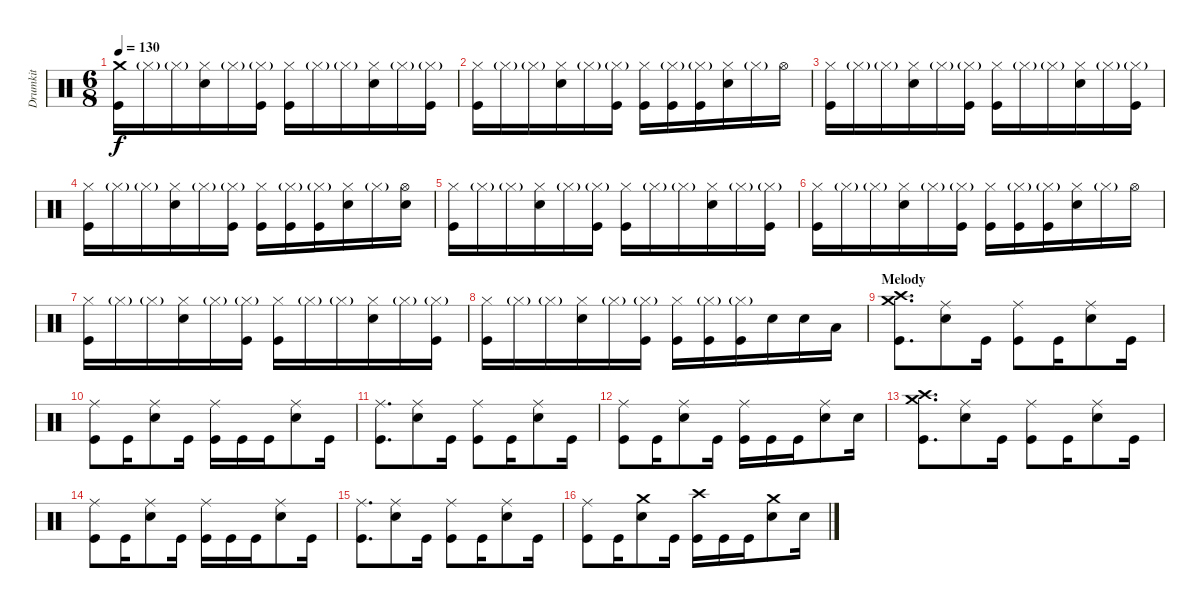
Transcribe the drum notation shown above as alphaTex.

\track ("Drumkit" "Drumkit") {instrument percussion}
\staff {score}
\articulation defaults
\ts (6 8)
\tempo 130
\clef neutral
\ks c
("Kick (hit)" "Crash medium (hit)").16{dy f} "Hi-Hat (closed)"{g}.16 "Hi-Hat (closed)"{g}.16 ("Hi-Hat (closed)" "Snare (hit) 2").16 "Hi-Hat (closed)"{g}.16 ("Hi-Hat (closed)"{g} "Kick (hit)").16 ("Hi-Hat (closed)" "Kick (hit)").16 "Hi-Hat (closed)"{g}.16 "Hi-Hat (closed)"{g}.16 ("Hi-Hat (closed)" "Snare (hit) 2").16 "Hi-Hat (closed)"{g}.16 ("Hi-Hat (closed)"{g} "Kick (hit)").16 |
("Hi-Hat (closed)" "Kick (hit)").16 "Hi-Hat (closed)"{g}.16 "Hi-Hat (closed)"{g}.16 ("Hi-Hat (closed)" "Snare (hit) 2").16 "Hi-Hat (closed)"{g}.16 ("Hi-Hat (closed)"{g} "Kick (hit)").16 ("Kick (hit)" "Hi-Hat (closed)").16 ("Kick (hit)" "Hi-Hat (closed)"{g}).16 ("Kick (hit)" "Hi-Hat (closed)"{g}).16 ("Snare (hit) 2" "Hi-Hat (closed)").16 "Hi-Hat (closed)"{g}.16 "Hi-Hat (open)".16 |
("Kick (hit)" "Hi-Hat (closed)").16 "Hi-Hat (closed)"{g}.16 "Hi-Hat (closed)"{g}.16 ("Hi-Hat (closed)" "Snare (hit) 2").16 "Hi-Hat (closed)"{g}.16 ("Hi-Hat (closed)"{g} "Kick (hit)").16 ("Hi-Hat (closed)" "Kick (hit)").16 "Hi-Hat (closed)"{g}.16 "Hi-Hat (closed)"{g}.16 ("Hi-Hat (closed)" "Snare (hit) 2").16 "Hi-Hat (closed)"{g}.16 ("Hi-Hat (closed)"{g} "Kick (hit)").16 |
("Hi-Hat (closed)" "Kick (hit)").16 "Hi-Hat (closed)"{g}.16 "Hi-Hat (closed)"{g}.16 ("Hi-Hat (closed)" "Snare (hit) 2").16 "Hi-Hat (closed)"{g}.16 ("Hi-Hat (closed)"{g} "Kick (hit)").16 ("Kick (hit)" "Hi-Hat (closed)").16 ("Kick (hit)" "Hi-Hat (closed)"{g}).16 ("Kick (hit)" "Hi-Hat (closed)"{g}).16 ("Snare (hit) 2" "Hi-Hat (closed)").16 "Hi-Hat (closed)"{g}.16 ("Hi-Hat (open)" "Snare (hit) 2").16 |
("Kick (hit)" "Hi-Hat (closed)").16 "Hi-Hat (closed)"{g}.16 "Hi-Hat (closed)"{g}.16 ("Hi-Hat (closed)" "Snare (hit) 2").16 "Hi-Hat (closed)"{g}.16 ("Hi-Hat (closed)"{g} "Kick (hit)").16 ("Hi-Hat (closed)" "Kick (hit)").16 "Hi-Hat (closed)"{g}.16 "Hi-Hat (closed)"{g}.16 ("Hi-Hat (closed)" "Snare (hit) 2").16 "Hi-Hat (closed)"{g}.16 ("Hi-Hat (closed)"{g} "Kick (hit)").16 |
("Hi-Hat (closed)" "Kick (hit)").16 "Hi-Hat (closed)"{g}.16 "Hi-Hat (closed)"{g}.16 ("Hi-Hat (closed)" "Snare (hit) 2").16 "Hi-Hat (closed)"{g}.16 ("Hi-Hat (closed)"{g} "Kick (hit)").16 ("Kick (hit)" "Hi-Hat (closed)").16 ("Kick (hit)" "Hi-Hat (closed)"{g}).16 ("Kick (hit)" "Hi-Hat (closed)"{g}).16 ("Snare (hit) 2" "Hi-Hat (closed)").16 "Hi-Hat (closed)"{g}.16 "Hi-Hat (open)".16 |
("Kick (hit)" "Hi-Hat (closed)").16 "Hi-Hat (closed)"{g}.16 "Hi-Hat (closed)"{g}.16 ("Hi-Hat (closed)" "Snare (hit) 2").16 "Hi-Hat (closed)"{g}.16 ("Hi-Hat (closed)"{g} "Kick (hit)").16 ("Hi-Hat (closed)" "Kick (hit)").16 "Hi-Hat (closed)"{g}.16 "Hi-Hat (closed)"{g}.16 ("Hi-Hat (closed)" "Snare (hit) 2").16 "Hi-Hat (closed)"{g}.16 ("Hi-Hat (closed)"{g} "Kick (hit)").16 |
("Hi-Hat (closed)" "Kick (hit)").16 "Hi-Hat (closed)"{g}.16 "Hi-Hat (closed)"{g}.16 ("Hi-Hat (closed)" "Snare (hit) 2").16 "Hi-Hat (closed)"{g}.16 ("Hi-Hat (closed)"{g} "Kick (hit)").16 ("Kick (hit)" "Hi-Hat (closed)").16 ("Kick (hit)" "Hi-Hat (closed)"{g}).16 ("Kick (hit)" "Hi-Hat (closed)"{g}).16 "Snare (hit) 2".16 "Snare (hit) 2".16 "Low Tom (hit)".16 |
\section ("" "Melody")
("Kick (hit)" "Crash high (hit)" "Crash medium (hit)").8{d} ("Snare (hit) 2" "Ride (middle)").8 "Kick (hit)".16 ("Kick (hit)" "Ride (middle)").8 "Kick (hit)".16 ("Snare (hit) 2" "Ride (middle)").8 "Kick (hit)".16 |
("Kick (hit)" "Ride (middle)").8 "Kick (hit)".16 ("Snare (hit) 2" "Ride (middle)").8 "Kick (hit)".16 ("Kick (hit)" "Ride (middle)").16 "Kick (hit)".16 "Kick (hit)".16 ("Snare (hit) 2" "Ride (middle)").8 "Kick (hit)".16 |
("Kick (hit)" "Ride (middle)").8{d} ("Snare (hit) 2" "Ride (middle)").8 "Kick (hit)".16 ("Kick (hit)" "Ride (middle)").8 "Kick (hit)".16 ("Snare (hit) 2" "Ride (middle)").8 "Kick (hit)".16 |
("Kick (hit)" "Ride (middle)").8 "Kick (hit)".16 ("Snare (hit) 2" "Ride (middle)").8 "Kick (hit)".16 ("Kick (hit)" "Ride (middle)").16 "Kick (hit)".16 "Kick (hit)".16 ("Snare (hit) 2" "Ride (middle)").8 "Snare (hit) 2".16 |
("Kick (hit)" "Crash high (hit)" "Crash medium (hit)").8{d} ("Snare (hit) 2" "Ride (middle)").8 "Kick (hit)".16 ("Kick (hit)" "Ride (middle)").8 "Kick (hit)".16 ("Snare (hit) 2" "Ride (middle)").8 "Kick (hit)".16 |
("Kick (hit)" "Ride (middle)").8 "Kick (hit)".16 ("Snare (hit) 2" "Ride (middle)").8 "Kick (hit)".16 ("Kick (hit)" "Ride (middle)").16 "Kick (hit)".16 "Kick (hit)".16 ("Snare (hit) 2" "Ride (middle)").8 "Kick (hit)".16 |
("Kick (hit)" "Ride (middle)").8{d} ("Snare (hit) 2" "Ride (middle)").8 "Kick (hit)".16 ("Kick (hit)" "Ride (middle)").8 "Kick (hit)".16 ("Snare (hit) 2" "Ride (middle)").8 "Kick (hit)".16 |
("Kick (hit)" "Ride (middle)").8 "Kick (hit)".16 ("Snare (hit) 2" "Crash medium (hit)").8 "Kick (hit)".16 ("Kick (hit)" "Crash high (hit)").16 "Kick (hit)".16 "Kick (hit)".16 ("Snare (hit) 2" "Crash medium (hit)").8 "Snare (hit) 2".16
